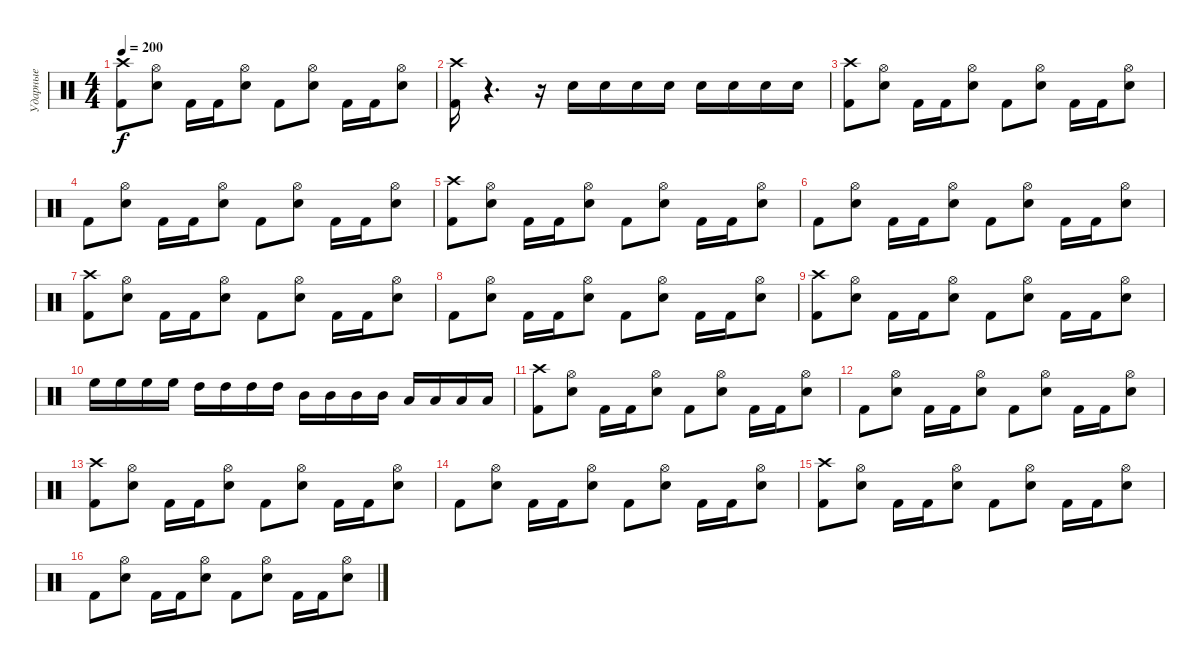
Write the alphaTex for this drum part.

\track ("Ударные" "Ударные") {instrument percussion}
\staff {score}
\articulation defaults
\ts (4 4)
\tempo 200
\clef neutral
\ks c
("Crash high (hit)" "Kick (hit) 2").8{dy f} ("Hi-Hat (open)" "Snare (hit) 2").8 "Kick (hit) 2".16 "Kick (hit) 2".16 ("Hi-Hat (open)" "Snare (hit) 2").8 "Kick (hit) 2".8 ("Hi-Hat (open)" "Snare (hit) 2").8 "Kick (hit) 2".16 "Kick (hit) 2".16 ("Hi-Hat (open)" "Snare (hit) 2").8 |
("Crash high (hit)" "Kick (hit) 2").16 r.4{d} r.16 "Snare (hit) 2".16 "Snare (hit) 2".16 "Snare (hit) 2".16 "Snare (hit) 2".16 "Snare (hit) 2".16 "Snare (hit) 2".16 "Snare (hit) 2".16 "Snare (hit) 2".16 |
("Crash high (hit)" "Kick (hit) 2").8 ("Hi-Hat (open)" "Snare (hit) 2").8 "Kick (hit) 2".16 "Kick (hit) 2".16 ("Hi-Hat (open)" "Snare (hit) 2").8 "Kick (hit) 2".8 ("Hi-Hat (open)" "Snare (hit) 2").8 "Kick (hit) 2".16 "Kick (hit) 2".16 ("Hi-Hat (open)" "Snare (hit) 2").8 |
"Kick (hit) 2".8 ("Hi-Hat (open)" "Snare (hit) 2").8 "Kick (hit) 2".16 "Kick (hit) 2".16 ("Hi-Hat (open)" "Snare (hit) 2").8 "Kick (hit) 2".8 ("Hi-Hat (open)" "Snare (hit) 2").8 "Kick (hit) 2".16 "Kick (hit) 2".16 ("Hi-Hat (open)" "Snare (hit) 2").8 |
("Crash high (hit)" "Kick (hit) 2").8 ("Hi-Hat (open)" "Snare (hit) 2").8 "Kick (hit) 2".16 "Kick (hit) 2".16 ("Hi-Hat (open)" "Snare (hit) 2").8 "Kick (hit) 2".8 ("Hi-Hat (open)" "Snare (hit) 2").8 "Kick (hit) 2".16 "Kick (hit) 2".16 ("Hi-Hat (open)" "Snare (hit) 2").8 |
"Kick (hit) 2".8 ("Hi-Hat (open)" "Snare (hit) 2").8 "Kick (hit) 2".16 "Kick (hit) 2".16 ("Hi-Hat (open)" "Snare (hit) 2").8 "Kick (hit) 2".8 ("Hi-Hat (open)" "Snare (hit) 2").8 "Kick (hit) 2".16 "Kick (hit) 2".16 ("Hi-Hat (open)" "Snare (hit) 2").8 |
("Crash high (hit)" "Kick (hit) 2").8 ("Hi-Hat (open)" "Snare (hit) 2").8 "Kick (hit) 2".16 "Kick (hit) 2".16 ("Hi-Hat (open)" "Snare (hit) 2").8 "Kick (hit) 2".8 ("Hi-Hat (open)" "Snare (hit) 2").8 "Kick (hit) 2".16 "Kick (hit) 2".16 ("Hi-Hat (open)" "Snare (hit) 2").8 |
"Kick (hit) 2".8 ("Hi-Hat (open)" "Snare (hit) 2").8 "Kick (hit) 2".16 "Kick (hit) 2".16 ("Hi-Hat (open)" "Snare (hit) 2").8 "Kick (hit) 2".8 ("Hi-Hat (open)" "Snare (hit) 2").8 "Kick (hit) 2".16 "Kick (hit) 2".16 ("Hi-Hat (open)" "Snare (hit) 2").8 |
("Crash high (hit)" "Kick (hit) 2").8 ("Hi-Hat (open)" "Snare (hit) 2").8 "Kick (hit) 2".16 "Kick (hit) 2".16 ("Hi-Hat (open)" "Snare (hit) 2").8 "Kick (hit) 2".8 ("Hi-Hat (open)" "Snare (hit) 2").8 "Kick (hit) 2".16 "Kick (hit) 2".16 ("Hi-Hat (open)" "Snare (hit) 2").8 |
"High Floor Tom (hit)".16 "High Floor Tom (hit)".16 "High Floor Tom (hit)".16 "High Floor Tom (hit)".16 "High Tom (hit)".16 "High Tom (hit)".16 "High Tom (hit)".16 "High Tom (hit)".16 "Mid Tom (hit)".16 "Mid Tom (hit)".16 "Mid Tom (hit)".16 "Mid Tom (hit)".16 "Low Tom (hit)".16 "Low Tom (hit)".16 "Low Tom (hit)".16 "Low Tom (hit)".16 |
("Crash high (hit)" "Kick (hit) 2").8 ("Hi-Hat (open)" "Snare (hit) 2").8 "Kick (hit) 2".16 "Kick (hit) 2".16 ("Hi-Hat (open)" "Snare (hit) 2").8 "Kick (hit) 2".8 ("Hi-Hat (open)" "Snare (hit) 2").8 "Kick (hit) 2".16 "Kick (hit) 2".16 ("Hi-Hat (open)" "Snare (hit) 2").8 |
"Kick (hit) 2".8 ("Hi-Hat (open)" "Snare (hit) 2").8 "Kick (hit) 2".16 "Kick (hit) 2".16 ("Hi-Hat (open)" "Snare (hit) 2").8 "Kick (hit) 2".8 ("Hi-Hat (open)" "Snare (hit) 2").8 "Kick (hit) 2".16 "Kick (hit) 2".16 ("Hi-Hat (open)" "Snare (hit) 2").8 |
("Crash high (hit)" "Kick (hit) 2").8 ("Hi-Hat (open)" "Snare (hit) 2").8 "Kick (hit) 2".16 "Kick (hit) 2".16 ("Hi-Hat (open)" "Snare (hit) 2").8 "Kick (hit) 2".8 ("Hi-Hat (open)" "Snare (hit) 2").8 "Kick (hit) 2".16 "Kick (hit) 2".16 ("Hi-Hat (open)" "Snare (hit) 2").8 |
"Kick (hit) 2".8 ("Hi-Hat (open)" "Snare (hit) 2").8 "Kick (hit) 2".16 "Kick (hit) 2".16 ("Hi-Hat (open)" "Snare (hit) 2").8 "Kick (hit) 2".8 ("Hi-Hat (open)" "Snare (hit) 2").8 "Kick (hit) 2".16 "Kick (hit) 2".16 ("Hi-Hat (open)" "Snare (hit) 2").8 |
("Crash high (hit)" "Kick (hit) 2").8 ("Hi-Hat (open)" "Snare (hit) 2").8 "Kick (hit) 2".16 "Kick (hit) 2".16 ("Hi-Hat (open)" "Snare (hit) 2").8 "Kick (hit) 2".8 ("Hi-Hat (open)" "Snare (hit) 2").8 "Kick (hit) 2".16 "Kick (hit) 2".16 ("Hi-Hat (open)" "Snare (hit) 2").8 |
"Kick (hit) 2".8 ("Hi-Hat (open)" "Snare (hit) 2").8 "Kick (hit) 2".16 "Kick (hit) 2".16 ("Hi-Hat (open)" "Snare (hit) 2").8 "Kick (hit) 2".8 ("Hi-Hat (open)" "Snare (hit) 2").8 "Kick (hit) 2".16 "Kick (hit) 2".16 ("Hi-Hat (open)" "Snare (hit) 2").8
